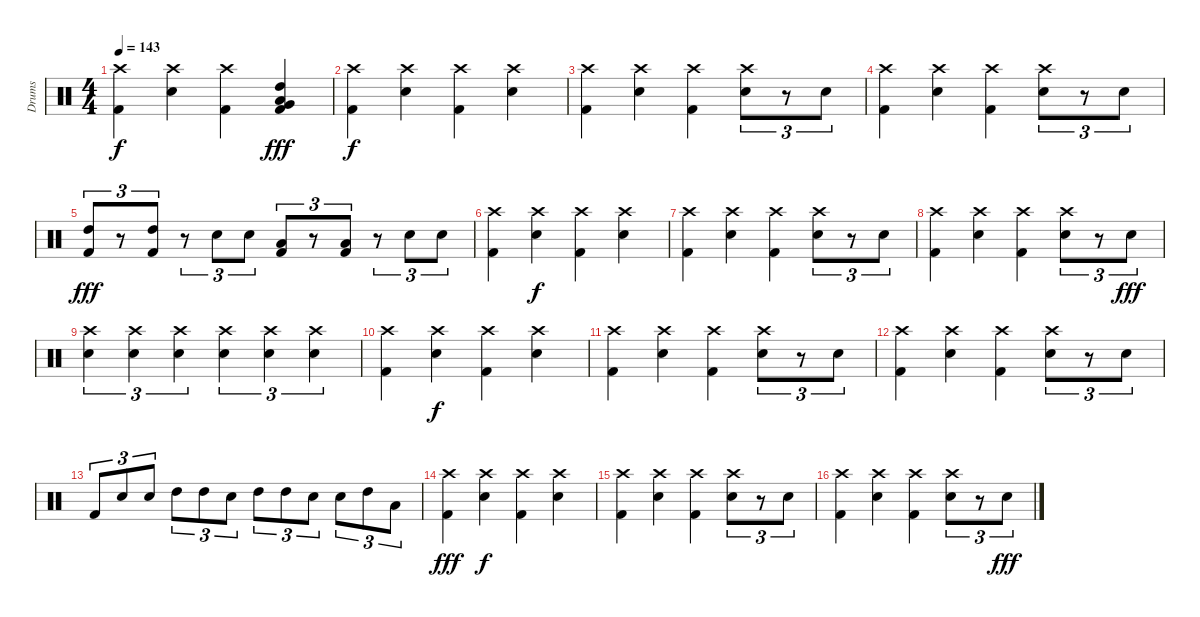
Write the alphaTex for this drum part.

\track ("Drums" "Drums") {instrument percussion}
\staff {score}
\articulation defaults
\ts (4 4)
\tempo 143
\clef neutral
\ks c
("Kick (hit) 2" "Crash high (hit)").4{dy f} ("Snare (hit) 2" "Crash high (hit)").4 ("Kick (hit) 2" "Crash high (hit)").4 ("High Tom (hit)" "Low Tom (hit)" "Very Low Tom (hit)" "Kick (hit) 2").4{dy fff} |
("Kick (hit) 2" "Crash high (hit)").4{dy f} ("Snare (hit) 2" "Crash high (hit)").4 ("Kick (hit) 2" "Crash high (hit)").4 ("Snare (hit) 2" "Crash high (hit)").4 |
("Kick (hit) 2" "Crash high (hit)").4 ("Snare (hit) 2" "Crash high (hit)").4 ("Kick (hit) 2" "Crash high (hit)").4 ("Snare (hit) 2" "Crash high (hit)").8{tu (3 2)} r.8{tu (3 2)} "Snare (hit) 2".8{tu (3 2)} |
("Kick (hit) 2" "Crash high (hit)").4 ("Snare (hit) 2" "Crash high (hit)").4 ("Kick (hit) 2" "Crash high (hit)").4 ("Snare (hit) 2" "Crash high (hit)").8{tu (3 2)} r.8{tu (3 2)} "Snare (hit) 2".8{tu (3 2)} |
("Kick (hit) 2" "High Tom (hit)").8{tu (3 2) dy fff} r.8{tu (3 2)} ("Kick (hit) 2" "High Tom (hit)").8{tu (3 2)} r.8{tu (3 2)} "Snare (hit) 2".8{tu (3 2)} "Snare (hit) 2".8{tu (3 2)} ("Kick (hit) 2" "Low Tom (hit)").8{tu (3 2)} r.8{tu (3 2)} ("Kick (hit) 2" "Low Tom (hit)").8{tu (3 2)} r.8{tu (3 2)} "Snare (hit) 2".8{tu (3 2)} "Snare (hit) 2".8{tu (3 2)} |
("Kick (hit) 2" "Crash high (hit)").4 ("Snare (hit) 2" "Crash high (hit)").4{dy f} ("Kick (hit) 2" "Crash high (hit)").4 ("Snare (hit) 2" "Crash high (hit)").4 |
("Kick (hit) 2" "Crash high (hit)").4 ("Snare (hit) 2" "Crash high (hit)").4 ("Kick (hit) 2" "Crash high (hit)").4 ("Snare (hit) 2" "Crash high (hit)").8{tu (3 2)} r.8{tu (3 2)} "Snare (hit) 2".8{tu (3 2)} |
("Kick (hit) 2" "Crash high (hit)").4 ("Snare (hit) 2" "Crash high (hit)").4 ("Kick (hit) 2" "Crash high (hit)").4 ("Snare (hit) 2" "Crash high (hit)").8{tu (3 2)} r.8{tu (3 2)} "Snare (hit) 2".8{tu (3 2) dy fff} |
("Crash high (hit)" "Snare (hit) 2").4{tu (3 2)} ("Crash high (hit)" "Snare (hit) 2").4{tu (3 2)} ("Crash high (hit)" "Snare (hit) 2").4{tu (3 2)} ("Crash high (hit)" "Snare (hit) 2").4{tu (3 2)} ("Crash high (hit)" "Snare (hit) 2").4{tu (3 2)} ("Crash high (hit)" "Snare (hit) 2").4{tu (3 2)} |
("Kick (hit) 2" "Crash high (hit)").4 ("Snare (hit) 2" "Crash high (hit)").4{dy f} ("Kick (hit) 2" "Crash high (hit)").4 ("Snare (hit) 2" "Crash high (hit)").4 |
("Kick (hit) 2" "Crash high (hit)").4 ("Snare (hit) 2" "Crash high (hit)").4 ("Kick (hit) 2" "Crash high (hit)").4 ("Snare (hit) 2" "Crash high (hit)").8{tu (3 2)} r.8{tu (3 2)} "Snare (hit) 2".8{tu (3 2)} |
("Kick (hit) 2" "Crash high (hit)").4 ("Snare (hit) 2" "Crash high (hit)").4 ("Kick (hit) 2" "Crash high (hit)").4 ("Snare (hit) 2" "Crash high (hit)").8{tu (3 2)} r.8{tu (3 2)} "Snare (hit) 2".8{tu (3 2)} |
"Kick (hit) 2".8{tu (3 2)} "Snare (hit) 2".8{tu (3 2)} "Snare (hit) 2".8{tu (3 2)} "High Tom (hit)".8{tu (3 2)} "High Tom (hit)".8{tu (3 2)} "Snare (hit) 2".8{tu (3 2)} "High Tom (hit)".8{tu (3 2)} "High Tom (hit)".8{tu (3 2)} "Snare (hit) 2".8{tu (3 2)} "Snare (hit) 2".8{tu (3 2)} "High Tom (hit)".8{tu (3 2)} "Low Tom (hit)".8{tu (3 2)} |
("Kick (hit) 2" "Crash high (hit)").4{dy fff} ("Snare (hit) 2" "Crash high (hit)").4{dy f} ("Kick (hit) 2" "Crash high (hit)").4 ("Snare (hit) 2" "Crash high (hit)").4 |
("Kick (hit) 2" "Crash high (hit)").4 ("Snare (hit) 2" "Crash high (hit)").4 ("Kick (hit) 2" "Crash high (hit)").4 ("Snare (hit) 2" "Crash high (hit)").8{tu (3 2)} r.8{tu (3 2)} "Snare (hit) 2".8{tu (3 2)} |
("Kick (hit) 2" "Crash high (hit)").4 ("Snare (hit) 2" "Crash high (hit)").4 ("Kick (hit) 2" "Crash high (hit)").4 ("Snare (hit) 2" "Crash high (hit)").8{tu (3 2)} r.8{tu (3 2)} "Snare (hit) 2".8{tu (3 2) dy fff}
